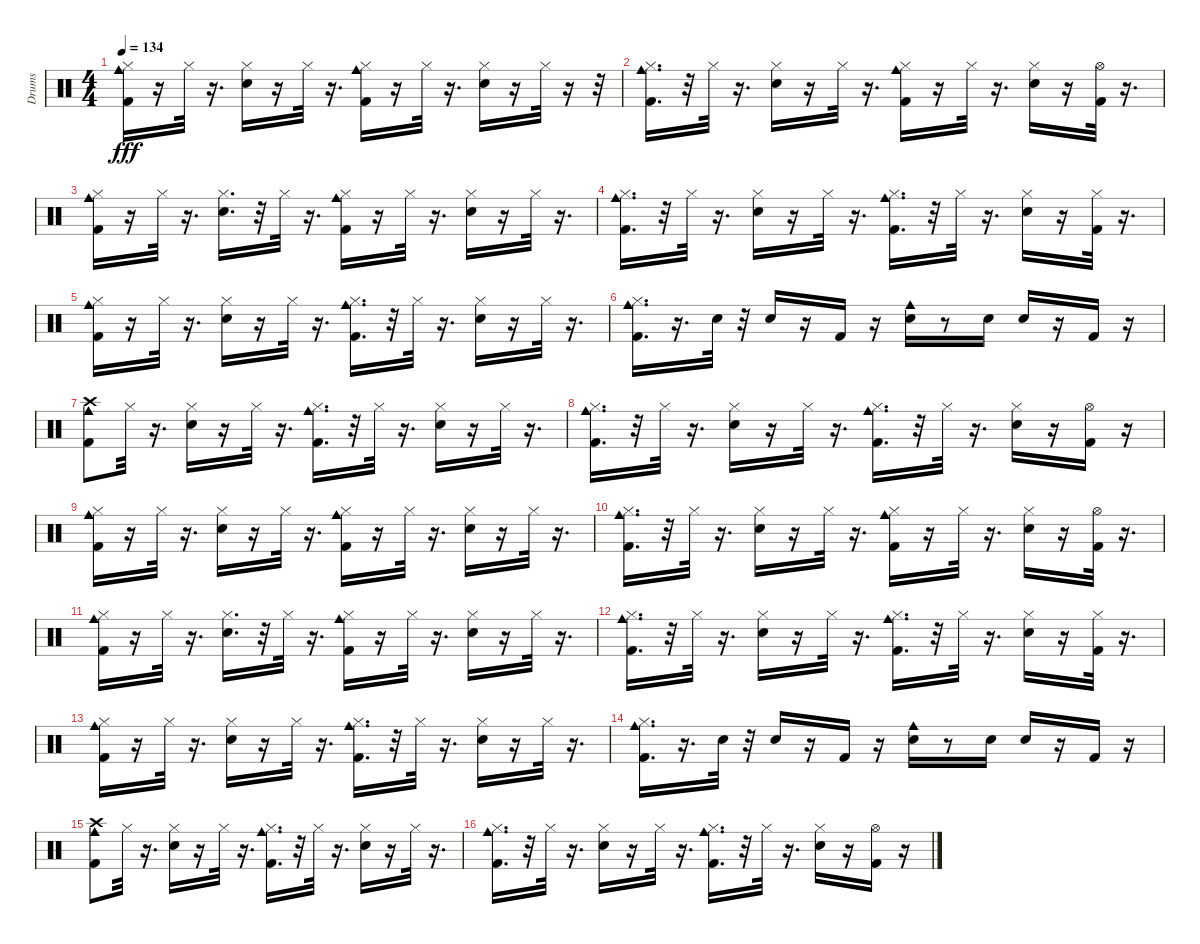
\track ("Drums" "Drums") {instrument percussion}
\staff {score}
\articulation defaults
\ts (4 4)
\tempo 134
\clef neutral
\ks c
("Kick (hit) 2" "Hi-Hat (closed)" "Cowbell medium (hit)").16{dy fff} r.16 "Hi-Hat (closed)".32 r.16{d} ("Snare (hit) 2" "Hi-Hat (closed)").16 r.16 "Hi-Hat (closed)".32 r.16{d} ("Kick (hit) 2" "Hi-Hat (closed)" "Cowbell medium (hit)").16 r.16 "Hi-Hat (closed)".32 r.16{d} ("Snare (hit) 2" "Hi-Hat (closed)").16 r.16 "Hi-Hat (closed)".32 r.16 r.32 |
("Kick (hit) 2" "Hi-Hat (closed)" "Cowbell medium (hit)").16{d} r.32 "Hi-Hat (closed)".32 r.16{d} ("Snare (hit) 2" "Hi-Hat (closed)").16 r.16 "Hi-Hat (closed)".32 r.16{d} ("Kick (hit) 2" "Hi-Hat (closed)" "Cowbell medium (hit)").16 r.16 "Hi-Hat (closed)".32 r.16{d} ("Snare (hit) 2" "Hi-Hat (closed)").16 r.16 ("Kick (hit) 2" "Hi-Hat (open)").32 r.16{d} |
("Kick (hit) 2" "Hi-Hat (closed)" "Cowbell medium (hit)").16 r.16 "Hi-Hat (closed)".32 r.16{d} ("Snare (hit) 2" "Hi-Hat (closed)").16{d} r.32 "Hi-Hat (closed)".32 r.16{d} ("Kick (hit) 2" "Hi-Hat (closed)" "Cowbell medium (hit)").16 r.16 "Hi-Hat (closed)".32 r.16{d} ("Snare (hit) 2" "Hi-Hat (closed)").16 r.16 "Hi-Hat (closed)".32 r.16{d} |
("Kick (hit) 2" "Hi-Hat (closed)" "Cowbell medium (hit)").16{d} r.32 "Hi-Hat (closed)".32 r.16{d} ("Snare (hit) 2" "Hi-Hat (closed)").16 r.16 "Hi-Hat (closed)".32 r.16{d} ("Kick (hit) 2" "Hi-Hat (closed)" "Cowbell medium (hit)").16{d} r.32 "Hi-Hat (closed)".32 r.16{d} ("Snare (hit) 2" "Hi-Hat (closed)").16 r.16 ("Kick (hit) 2" "Hi-Hat (closed)").32 r.16{d} |
("Kick (hit) 2" "Hi-Hat (closed)" "Cowbell medium (hit)").16 r.16 "Hi-Hat (closed)".32 r.16{d} ("Snare (hit) 2" "Hi-Hat (closed)").16 r.16 "Hi-Hat (closed)".32 r.16{d} ("Kick (hit) 2" "Hi-Hat (closed)" "Cowbell medium (hit)").16{d} r.32 "Hi-Hat (closed)".32 r.16{d} ("Snare (hit) 2" "Hi-Hat (closed)").16 r.16 "Hi-Hat (closed)".32 r.16{d} |
("Kick (hit) 2" "Hi-Hat (closed)" "Cowbell medium (hit)").16{d} r.16{d} "Snare (hit) 2".32 r.32 "Snare (hit) 2".16 r.16 "Kick (hit) 2".16 r.16 ("Snare (hit) 2" "Cowbell medium (hit)").16 r.8 "Snare (hit) 2".16 "Snare (hit) 2".16 r.16 "Kick (hit) 2".16 r.16 |
("Kick (hit) 2" "Crash high (hit)" "Cowbell medium (hit)").8 "Hi-Hat (closed)".32 r.16{d} ("Snare (hit) 2" "Hi-Hat (closed)").16 r.16 "Hi-Hat (closed)".32 r.16{d} ("Kick (hit) 2" "Hi-Hat (closed)" "Cowbell medium (hit)").16{d} r.32 "Hi-Hat (closed)".32 r.16{d} ("Snare (hit) 2" "Hi-Hat (closed)").16 r.16 "Hi-Hat (closed)".32 r.16{d} |
("Kick (hit) 2" "Hi-Hat (closed)" "Cowbell medium (hit)").16{d} r.32 "Hi-Hat (closed)".32 r.16{d} ("Snare (hit) 2" "Hi-Hat (closed)").16 r.16 "Hi-Hat (closed)".32 r.16{d} ("Kick (hit) 2" "Hi-Hat (closed)" "Cowbell medium (hit)").16{d} r.32 "Hi-Hat (closed)".32 r.16{d} ("Snare (hit) 2" "Hi-Hat (closed)").16 r.16 ("Kick (hit) 2" "Hi-Hat (open)").16 r.16 |
("Kick (hit) 2" "Hi-Hat (closed)" "Cowbell medium (hit)").16 r.16 "Hi-Hat (closed)".32 r.16{d} ("Snare (hit) 2" "Hi-Hat (closed)").16 r.16 "Hi-Hat (closed)".32 r.16{d} ("Kick (hit) 2" "Hi-Hat (closed)" "Cowbell medium (hit)").16 r.16 "Hi-Hat (closed)".32 r.16{d} ("Snare (hit) 2" "Hi-Hat (closed)").16 r.16 "Hi-Hat (closed)".32 r.16{d} |
("Kick (hit) 2" "Hi-Hat (closed)" "Cowbell medium (hit)").16{d} r.32 "Hi-Hat (closed)".32 r.16{d} ("Snare (hit) 2" "Hi-Hat (closed)").16 r.16 "Hi-Hat (closed)".32 r.16{d} ("Kick (hit) 2" "Hi-Hat (closed)" "Cowbell medium (hit)").16 r.16 "Hi-Hat (closed)".32 r.16{d} ("Snare (hit) 2" "Hi-Hat (closed)").16 r.16 ("Kick (hit) 2" "Hi-Hat (open)").32 r.16{d} |
("Kick (hit) 2" "Hi-Hat (closed)" "Cowbell medium (hit)").16 r.16 "Hi-Hat (closed)".32 r.16{d} ("Snare (hit) 2" "Hi-Hat (closed)").16{d} r.32 "Hi-Hat (closed)".32 r.16{d} ("Kick (hit) 2" "Hi-Hat (closed)" "Cowbell medium (hit)").16 r.16 "Hi-Hat (closed)".32 r.16{d} ("Snare (hit) 2" "Hi-Hat (closed)").16 r.16 "Hi-Hat (closed)".32 r.16{d} |
("Kick (hit) 2" "Hi-Hat (closed)" "Cowbell medium (hit)").16{d} r.32 "Hi-Hat (closed)".32 r.16{d} ("Snare (hit) 2" "Hi-Hat (closed)").16 r.16 "Hi-Hat (closed)".32 r.16{d} ("Kick (hit) 2" "Hi-Hat (closed)" "Cowbell medium (hit)").16{d} r.32 "Hi-Hat (closed)".32 r.16{d} ("Snare (hit) 2" "Hi-Hat (closed)").16 r.16 ("Kick (hit) 2" "Hi-Hat (closed)").32 r.16{d} |
("Kick (hit) 2" "Hi-Hat (closed)" "Cowbell medium (hit)").16 r.16 "Hi-Hat (closed)".32 r.16{d} ("Snare (hit) 2" "Hi-Hat (closed)").16 r.16 "Hi-Hat (closed)".32 r.16{d} ("Kick (hit) 2" "Hi-Hat (closed)" "Cowbell medium (hit)").16{d} r.32 "Hi-Hat (closed)".32 r.16{d} ("Snare (hit) 2" "Hi-Hat (closed)").16 r.16 "Hi-Hat (closed)".32 r.16{d} |
("Kick (hit) 2" "Hi-Hat (closed)" "Cowbell medium (hit)").16{d} r.16{d} "Snare (hit) 2".32 r.32 "Snare (hit) 2".16 r.16 "Kick (hit) 2".16 r.16 ("Snare (hit) 2" "Cowbell medium (hit)").16 r.8 "Snare (hit) 2".16 "Snare (hit) 2".16 r.16 "Kick (hit) 2".16 r.16 |
("Kick (hit) 2" "Crash high (hit)" "Cowbell medium (hit)").8 "Hi-Hat (closed)".32 r.16{d} ("Snare (hit) 2" "Hi-Hat (closed)").16 r.16 "Hi-Hat (closed)".32 r.16{d} ("Kick (hit) 2" "Hi-Hat (closed)" "Cowbell medium (hit)").16{d} r.32 "Hi-Hat (closed)".32 r.16{d} ("Snare (hit) 2" "Hi-Hat (closed)").16 r.16 "Hi-Hat (closed)".32 r.16{d} |
("Kick (hit) 2" "Hi-Hat (closed)" "Cowbell medium (hit)").16{d} r.32 "Hi-Hat (closed)".32 r.16{d} ("Snare (hit) 2" "Hi-Hat (closed)").16 r.16 "Hi-Hat (closed)".32 r.16{d} ("Kick (hit) 2" "Hi-Hat (closed)" "Cowbell medium (hit)").16{d} r.32 "Hi-Hat (closed)".32 r.16{d} ("Snare (hit) 2" "Hi-Hat (closed)").16 r.16 ("Kick (hit) 2" "Hi-Hat (open)").16 r.16
